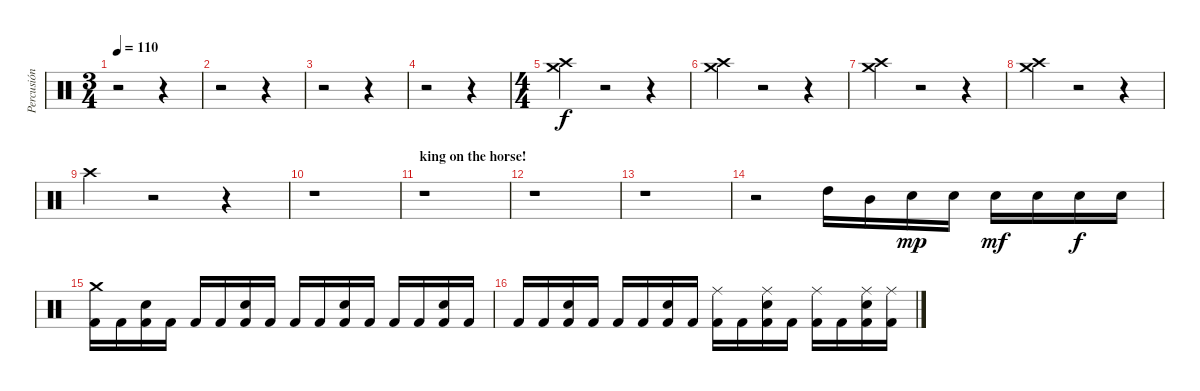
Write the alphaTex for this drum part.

\track ("Percusión" "Percusión") {instrument percussion}
\staff {score}
\articulation defaults
\ts (3 4)
\tempo 110
\clef neutral
\ks c
r.2{dy f} r.4 |
r.2 r.4 |
r.2 r.4 |
r.2 r.4 |
\ts (4 4)
("Crash high (hit)" "Crash medium (hit)").4 r.2 r.4 |
("Crash high (hit)" "Crash medium (hit)").4 r.2 r.4 |
("Crash high (hit)" "Crash medium (hit)").4 r.2 r.4 |
("Crash high (hit)" "Crash medium (hit)").4 r.2 r.4 |
"Crash high (hit)".4 r.2 r.4 |
r.1 |
\section ("" "king on the horse!")
r.1 |
r.1 |
r.1 |
r.2 "High Tom (hit)".16 "Mid Tom (hit)".16 "Electric Snare (hit)".16{dy mp} "Electric Snare (hit)".16 "Electric Snare (hit)".16{dy mf} "Electric Snare (hit)".16 "Electric Snare (hit)".16{dy f} "Electric Snare (hit)".16 |
("Crash medium (hit)" "Kick (hit) 2").16 "Kick (hit) 2".16 ("Electric Snare (hit)" "Kick (hit) 2").16 "Kick (hit) 2".16 "Kick (hit) 2".16 "Kick (hit) 2".16 ("Electric Snare (hit)" "Kick (hit) 2").16 "Kick (hit) 2".16 "Kick (hit) 2".16 "Kick (hit) 2".16 ("Electric Snare (hit)" "Kick (hit) 2").16 "Kick (hit) 2".16 "Kick (hit) 2".16 "Kick (hit) 2".16 ("Electric Snare (hit)" "Kick (hit) 2").16 "Kick (hit) 2".16 |
"Kick (hit) 2".16 "Kick (hit) 2".16 ("Electric Snare (hit)" "Kick (hit) 2").16 "Kick (hit) 2".16 "Kick (hit) 2".16 "Kick (hit) 2".16 ("Electric Snare (hit)" "Kick (hit) 2").16 "Kick (hit) 2".16 ("Ride (middle)" "Kick (hit) 2").16 "Kick (hit) 2".16 ("Ride (middle)" "Electric Snare (hit)" "Kick (hit) 2").16 "Kick (hit) 2".16 ("Ride (middle)" "Kick (hit) 2").16 "Kick (hit) 2".16 ("Ride (middle)" "Electric Snare (hit)" "Kick (hit) 2").16 ("Ride (middle)" "Kick (hit) 2").16
